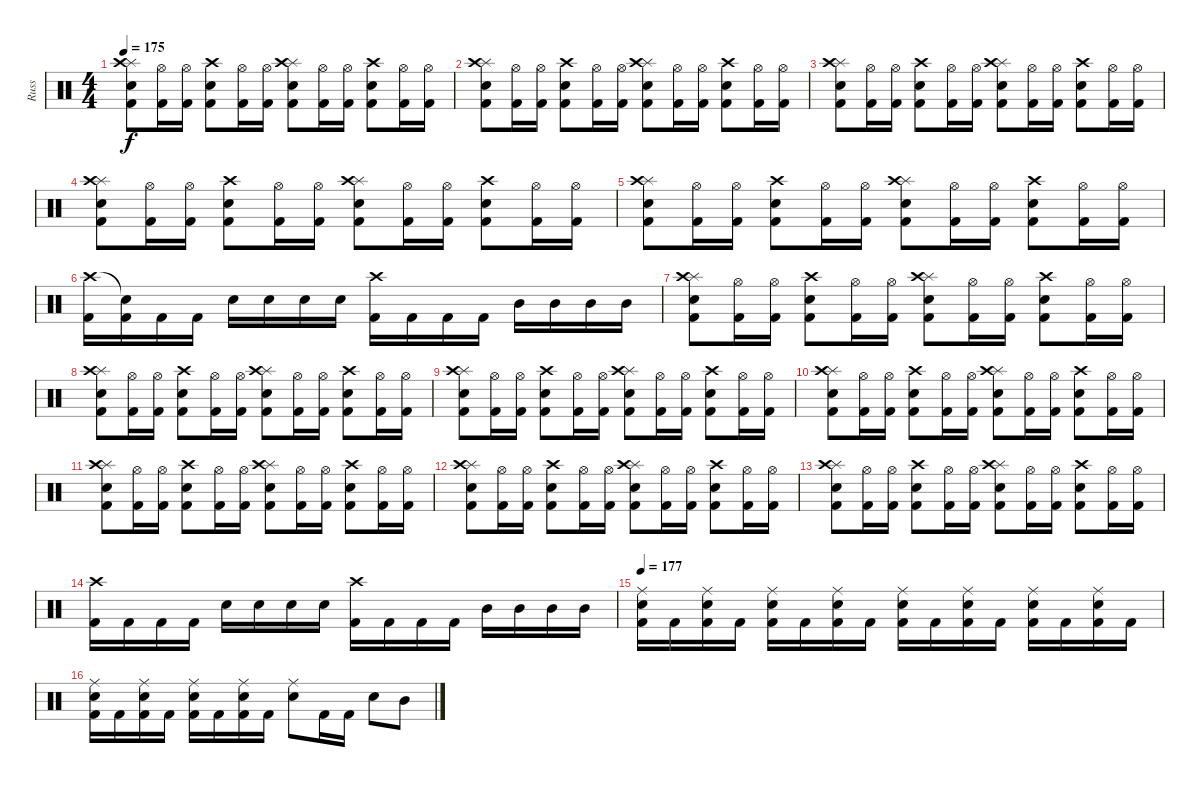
\track ("Russ" "Russ") {instrument percussion}
\staff {score}
\articulation defaults
\ts (4 4)
\tempo 175
\clef neutral
\ks c
("Kick (hit) 2" "Snare (hit) 2" "Splash (hit)" "Crash high (hit)").8{dy f} ("Kick (hit) 2" "Hi-Hat (open)").16 ("Kick (hit) 2" "Hi-Hat (open)").16 ("Kick (hit) 2" "Snare (hit) 2" "Crash high (hit)").8 ("Kick (hit) 2" "Hi-Hat (open)").16 ("Kick (hit) 2" "Hi-Hat (open)").16 ("Kick (hit) 2" "Snare (hit) 2" "Splash (hit)" "Crash high (hit)").8 ("Kick (hit) 2" "Hi-Hat (open)").16 ("Kick (hit) 2" "Hi-Hat (open)").16 ("Kick (hit) 2" "Snare (hit) 2" "Crash high (hit)").8 ("Kick (hit) 2" "Hi-Hat (open)").16 ("Kick (hit) 2" "Hi-Hat (open)").16 |
("Kick (hit) 2" "Snare (hit) 2" "Splash (hit)" "Crash high (hit)").8 ("Kick (hit) 2" "Hi-Hat (open)").16 ("Kick (hit) 2" "Hi-Hat (open)").16 ("Kick (hit) 2" "Snare (hit) 2" "Crash high (hit)").8 ("Kick (hit) 2" "Hi-Hat (open)").16 ("Kick (hit) 2" "Hi-Hat (open)").16 ("Kick (hit) 2" "Snare (hit) 2" "Splash (hit)" "Crash high (hit)").8 ("Kick (hit) 2" "Hi-Hat (open)").16 ("Kick (hit) 2" "Hi-Hat (open)").16 ("Kick (hit) 2" "Snare (hit) 2" "Crash high (hit)").8 ("Kick (hit) 2" "Hi-Hat (open)").16 ("Kick (hit) 2" "Hi-Hat (open)").16 |
("Kick (hit) 2" "Snare (hit) 2" "Splash (hit)" "Crash high (hit)").8 ("Kick (hit) 2" "Hi-Hat (open)").16 ("Kick (hit) 2" "Hi-Hat (open)").16 ("Kick (hit) 2" "Snare (hit) 2" "Crash high (hit)").8 ("Kick (hit) 2" "Hi-Hat (open)").16 ("Kick (hit) 2" "Hi-Hat (open)").16 ("Kick (hit) 2" "Snare (hit) 2" "Splash (hit)" "Crash high (hit)").8 ("Kick (hit) 2" "Hi-Hat (open)").16 ("Kick (hit) 2" "Hi-Hat (open)").16 ("Kick (hit) 2" "Snare (hit) 2" "Crash high (hit)").8 ("Kick (hit) 2" "Hi-Hat (open)").16 ("Kick (hit) 2" "Hi-Hat (open)").16 |
("Kick (hit) 2" "Snare (hit) 2" "Splash (hit)" "Crash high (hit)").8 ("Kick (hit) 2" "Hi-Hat (open)").16 ("Kick (hit) 2" "Hi-Hat (open)").16 ("Kick (hit) 2" "Snare (hit) 2" "Crash high (hit)").8 ("Kick (hit) 2" "Hi-Hat (open)").16 ("Kick (hit) 2" "Hi-Hat (open)").16 ("Kick (hit) 2" "Snare (hit) 2" "Splash (hit)" "Crash high (hit)").8 ("Kick (hit) 2" "Hi-Hat (open)").16 ("Kick (hit) 2" "Hi-Hat (open)").16 ("Kick (hit) 2" "Snare (hit) 2" "Crash high (hit)").8 ("Kick (hit) 2" "Hi-Hat (open)").16 ("Kick (hit) 2" "Hi-Hat (open)").16 |
("Kick (hit) 2" "Snare (hit) 2" "Splash (hit)" "Crash high (hit)").8 ("Kick (hit) 2" "Hi-Hat (open)").16 ("Kick (hit) 2" "Hi-Hat (open)").16 ("Kick (hit) 2" "Snare (hit) 2" "Crash high (hit)").8 ("Kick (hit) 2" "Hi-Hat (open)").16 ("Kick (hit) 2" "Hi-Hat (open)").16 ("Kick (hit) 2" "Snare (hit) 2" "Splash (hit)" "Crash high (hit)").8 ("Kick (hit) 2" "Hi-Hat (open)").16 ("Kick (hit) 2" "Hi-Hat (open)").16 ("Kick (hit) 2" "Snare (hit) 2" "Crash high (hit)").8 ("Kick (hit) 2" "Hi-Hat (open)").16 ("Kick (hit) 2" "Hi-Hat (open)").16 |
("Kick (hit) 2" "Crash high (hit)").16 ("Kick (hit) 2" "Snare (hit) 2"{t}).16 "Kick (hit) 2".16 "Kick (hit) 2".16 "Snare (hit) 2".16 "Snare (hit) 2".16 "Snare (hit) 2".16 "Snare (hit) 2".16 ("Kick (hit) 2" "Crash high (hit)").16 "Kick (hit) 2".16 "Kick (hit) 2".16 "Kick (hit) 2".16 "Mid Tom (hit)".16 "Mid Tom (hit)".16 "Mid Tom (hit)".16 "Mid Tom (hit)".16 |
("Kick (hit) 2" "Snare (hit) 2" "Splash (hit)" "Crash high (hit)").8 ("Kick (hit) 2" "Hi-Hat (open)").16 ("Kick (hit) 2" "Hi-Hat (open)").16 ("Kick (hit) 2" "Snare (hit) 2" "Crash high (hit)").8 ("Kick (hit) 2" "Hi-Hat (open)").16 ("Kick (hit) 2" "Hi-Hat (open)").16 ("Kick (hit) 2" "Snare (hit) 2" "Splash (hit)" "Crash high (hit)").8 ("Kick (hit) 2" "Hi-Hat (open)").16 ("Kick (hit) 2" "Hi-Hat (open)").16 ("Kick (hit) 2" "Snare (hit) 2" "Crash high (hit)").8 ("Kick (hit) 2" "Hi-Hat (open)").16 ("Kick (hit) 2" "Hi-Hat (open)").16 |
("Kick (hit) 2" "Snare (hit) 2" "Splash (hit)" "Crash high (hit)").8 ("Kick (hit) 2" "Hi-Hat (open)").16 ("Kick (hit) 2" "Hi-Hat (open)").16 ("Kick (hit) 2" "Snare (hit) 2" "Crash high (hit)").8 ("Kick (hit) 2" "Hi-Hat (open)").16 ("Kick (hit) 2" "Hi-Hat (open)").16 ("Kick (hit) 2" "Snare (hit) 2" "Splash (hit)" "Crash high (hit)").8 ("Kick (hit) 2" "Hi-Hat (open)").16 ("Kick (hit) 2" "Hi-Hat (open)").16 ("Kick (hit) 2" "Snare (hit) 2" "Crash high (hit)").8 ("Kick (hit) 2" "Hi-Hat (open)").16 ("Kick (hit) 2" "Hi-Hat (open)").16 |
("Kick (hit) 2" "Snare (hit) 2" "Splash (hit)" "Crash high (hit)").8 ("Kick (hit) 2" "Hi-Hat (open)").16 ("Kick (hit) 2" "Hi-Hat (open)").16 ("Kick (hit) 2" "Snare (hit) 2" "Crash high (hit)").8 ("Kick (hit) 2" "Hi-Hat (open)").16 ("Kick (hit) 2" "Hi-Hat (open)").16 ("Kick (hit) 2" "Snare (hit) 2" "Splash (hit)" "Crash high (hit)").8 ("Kick (hit) 2" "Hi-Hat (open)").16 ("Kick (hit) 2" "Hi-Hat (open)").16 ("Kick (hit) 2" "Snare (hit) 2" "Crash high (hit)").8 ("Kick (hit) 2" "Hi-Hat (open)").16 ("Kick (hit) 2" "Hi-Hat (open)").16 |
("Kick (hit) 2" "Snare (hit) 2" "Splash (hit)" "Crash high (hit)").8 ("Kick (hit) 2" "Hi-Hat (open)").16 ("Kick (hit) 2" "Hi-Hat (open)").16 ("Kick (hit) 2" "Snare (hit) 2" "Crash high (hit)").8 ("Kick (hit) 2" "Hi-Hat (open)").16 ("Kick (hit) 2" "Hi-Hat (open)").16 ("Kick (hit) 2" "Snare (hit) 2" "Splash (hit)" "Crash high (hit)").8 ("Kick (hit) 2" "Hi-Hat (open)").16 ("Kick (hit) 2" "Hi-Hat (open)").16 ("Kick (hit) 2" "Snare (hit) 2" "Crash high (hit)").8 ("Kick (hit) 2" "Hi-Hat (open)").16 ("Kick (hit) 2" "Hi-Hat (open)").16 |
("Kick (hit) 2" "Snare (hit) 2" "Splash (hit)" "Crash high (hit)").8 ("Kick (hit) 2" "Hi-Hat (open)").16 ("Kick (hit) 2" "Hi-Hat (open)").16 ("Kick (hit) 2" "Snare (hit) 2" "Crash high (hit)").8 ("Kick (hit) 2" "Hi-Hat (open)").16 ("Kick (hit) 2" "Hi-Hat (open)").16 ("Kick (hit) 2" "Snare (hit) 2" "Splash (hit)" "Crash high (hit)").8 ("Kick (hit) 2" "Hi-Hat (open)").16 ("Kick (hit) 2" "Hi-Hat (open)").16 ("Kick (hit) 2" "Snare (hit) 2" "Crash high (hit)").8 ("Kick (hit) 2" "Hi-Hat (open)").16 ("Kick (hit) 2" "Hi-Hat (open)").16 |
("Kick (hit) 2" "Snare (hit) 2" "Splash (hit)" "Crash high (hit)").8 ("Kick (hit) 2" "Hi-Hat (open)").16 ("Kick (hit) 2" "Hi-Hat (open)").16 ("Kick (hit) 2" "Snare (hit) 2" "Crash high (hit)").8 ("Kick (hit) 2" "Hi-Hat (open)").16 ("Kick (hit) 2" "Hi-Hat (open)").16 ("Kick (hit) 2" "Snare (hit) 2" "Splash (hit)" "Crash high (hit)").8 ("Kick (hit) 2" "Hi-Hat (open)").16 ("Kick (hit) 2" "Hi-Hat (open)").16 ("Kick (hit) 2" "Snare (hit) 2" "Crash high (hit)").8 ("Kick (hit) 2" "Hi-Hat (open)").16 ("Kick (hit) 2" "Hi-Hat (open)").16 |
("Kick (hit) 2" "Snare (hit) 2" "Splash (hit)" "Crash high (hit)").8 ("Kick (hit) 2" "Hi-Hat (open)").16 ("Kick (hit) 2" "Hi-Hat (open)").16 ("Kick (hit) 2" "Snare (hit) 2" "Crash high (hit)").8 ("Kick (hit) 2" "Hi-Hat (open)").16 ("Kick (hit) 2" "Hi-Hat (open)").16 ("Kick (hit) 2" "Snare (hit) 2" "Splash (hit)" "Crash high (hit)").8 ("Kick (hit) 2" "Hi-Hat (open)").16 ("Kick (hit) 2" "Hi-Hat (open)").16 ("Kick (hit) 2" "Snare (hit) 2" "Crash high (hit)").8 ("Kick (hit) 2" "Hi-Hat (open)").16 ("Kick (hit) 2" "Hi-Hat (open)").16 |
("Kick (hit) 2" "Crash high (hit)").16 "Kick (hit) 2".16 "Kick (hit) 2".16 "Kick (hit) 2".16 "Snare (hit) 2".16 "Snare (hit) 2".16 "Snare (hit) 2".16 "Snare (hit) 2".16 ("Kick (hit) 2" "Crash high (hit)").16 "Kick (hit) 2".16 "Kick (hit) 2".16 "Kick (hit) 2".16 "Mid Tom (hit)".16 "Mid Tom (hit)".16 "Mid Tom (hit)".16 "Mid Tom (hit)".16 |
\tempo 177
("Snare (hit) 2" "Ride (middle)" "Kick (hit) 2").16 "Kick (hit) 2".16 ("Snare (hit) 2" "Ride (middle)" "Kick (hit) 2").16 "Kick (hit) 2".16 ("Snare (hit) 2" "Ride (middle)" "Kick (hit) 2").16 "Kick (hit) 2".16 ("Snare (hit) 2" "Ride (middle)" "Kick (hit) 2").16 "Kick (hit) 2".16 ("Snare (hit) 2" "Ride (middle)" "Kick (hit) 2").16 "Kick (hit) 2".16 ("Snare (hit) 2" "Ride (middle)" "Kick (hit) 2").16 "Kick (hit) 2".16 ("Snare (hit) 2" "Ride (middle)" "Kick (hit) 2").16 "Kick (hit) 2".16 ("Snare (hit) 2" "Ride (middle)" "Kick (hit) 2").16 "Kick (hit) 2".16 |
("Snare (hit) 2" "Ride (middle)" "Kick (hit) 2").16 "Kick (hit) 2".16 ("Snare (hit) 2" "Ride (middle)" "Kick (hit) 2").16 "Kick (hit) 2".16 ("Snare (hit) 2" "Ride (middle)" "Kick (hit) 2").16 "Kick (hit) 2".16 ("Snare (hit) 2" "Ride (middle)" "Kick (hit) 2").16 "Kick (hit) 2".16 ("Snare (hit) 2" "Ride (middle)").8 "Kick (hit) 2".16 "Kick (hit) 2".16 "Snare (hit) 2".8 "Mid Tom (hit)".8
